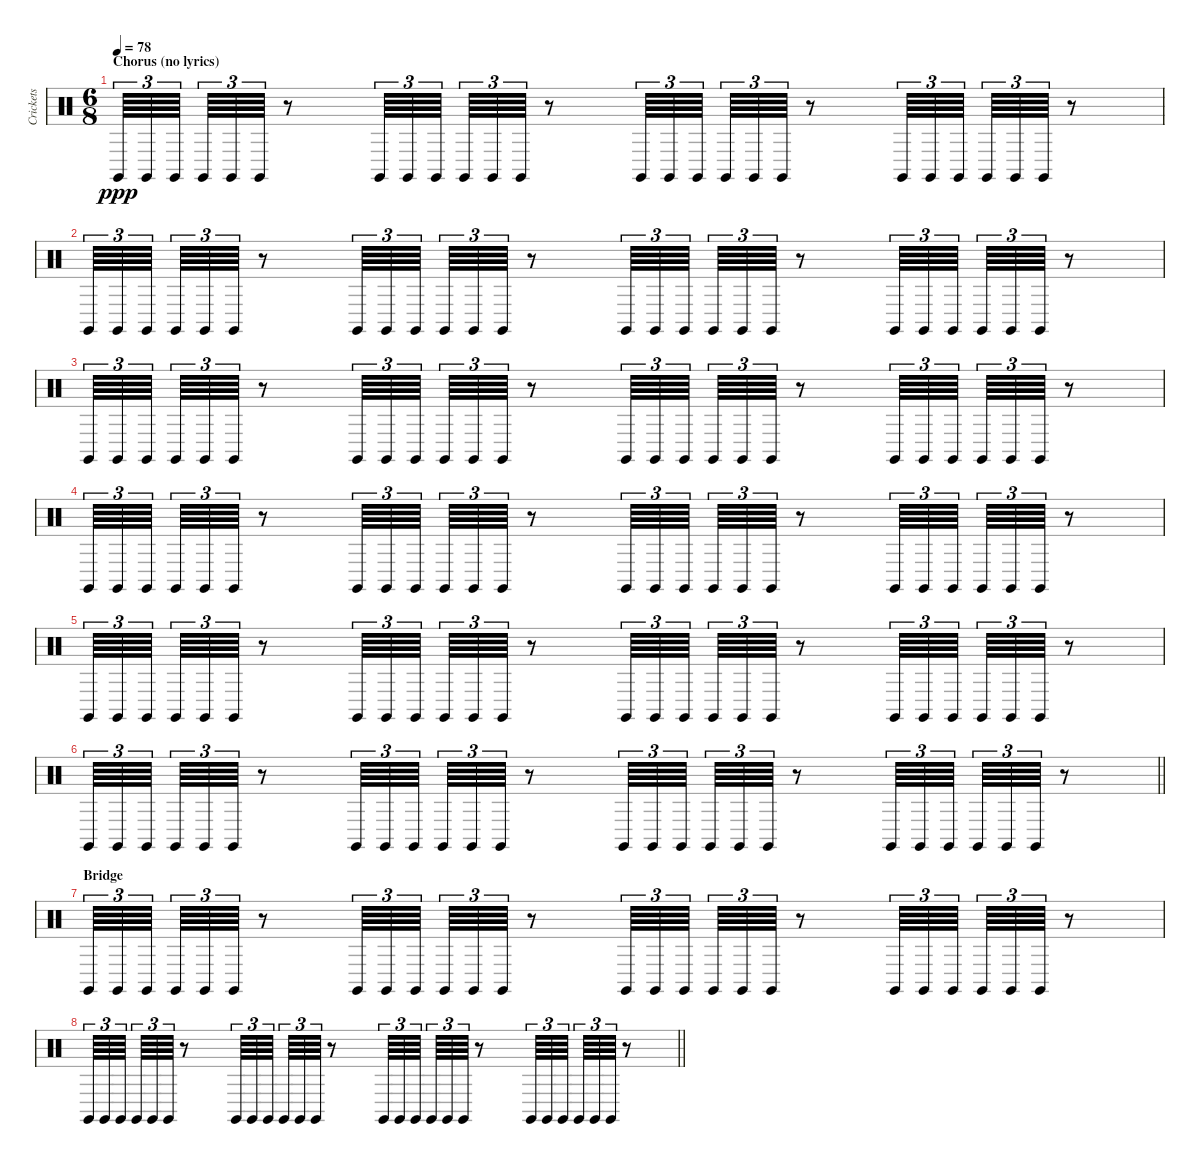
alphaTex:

\track ("Crickets" "Crickets") {instrument percussion}
\staff {score}
\articulation defaults
\ts (6 8)
\section ("" "Chorus (no lyrics)")
\tempo 78
\clef neutral
\ks c "Claves (hit)".64{tu (3 2) dy ppp} "Claves (hit)".64{tu (3 2)} "Claves (hit)".64{tu (3 2) beam splitsecondary} "Claves (hit)".64{tu (3 2)} "Claves (hit)".64{tu (3 2)} "Claves (hit)".64{tu (3 2)}
r.8 "Claves (hit)".64{tu (3 2)} "Claves (hit)".64{tu (3 2)} "Claves (hit)".64{tu (3 2) beam splitsecondary} "Claves (hit)".64{tu (3 2)} "Claves (hit)".64{tu (3 2)} "Claves (hit)".64{tu (3 2)} r.8 "Claves (hit)".64{tu (3 2)} "Claves (hit)".64{tu (3 2)} "Claves (hit)".64{tu (3 2) beam splitsecondary} "Claves (hit)".64{tu (3 2)} "Claves (hit)".64{tu (3 2)} "Claves (hit)".64{tu (3 2)} r.8 "Claves (hit)".64{tu (3 2)} "Claves (hit)".64{tu (3 2)} "Claves (hit)".64{tu (3 2) beam splitsecondary} "Claves (hit)".64{tu (3 2)} "Claves (hit)".64{tu (3 2)} "Claves (hit)".64{tu (3 2)} r.8 |
"Claves (hit)".64{tu (3 2)} "Claves (hit)".64{tu (3 2)} "Claves (hit)".64{tu (3 2) beam splitsecondary} "Claves (hit)".64{tu (3 2)} "Claves (hit)".64{tu (3 2)} "Claves (hit)".64{tu (3 2)} r.8 "Claves (hit)".64{tu (3 2)} "Claves (hit)".64{tu (3 2)} "Claves (hit)".64{tu (3 2) beam splitsecondary} "Claves (hit)".64{tu (3 2)} "Claves (hit)".64{tu (3 2)} "Claves (hit)".64{tu (3 2)} r.8 "Claves (hit)".64{tu (3 2)} "Claves (hit)".64{tu (3 2)} "Claves (hit)".64{tu (3 2) beam splitsecondary} "Claves (hit)".64{tu (3 2)} "Claves (hit)".64{tu (3 2)} "Claves (hit)".64{tu (3 2)} r.8 "Claves (hit)".64{tu (3 2)} "Claves (hit)".64{tu (3 2)} "Claves (hit)".64{tu (3 2) beam splitsecondary} "Claves (hit)".64{tu (3 2)} "Claves (hit)".64{tu (3 2)} "Claves (hit)".64{tu (3 2)} r.8 |
"Claves (hit)".64{tu (3 2)} "Claves (hit)".64{tu (3 2)} "Claves (hit)".64{tu (3 2) beam splitsecondary} "Claves (hit)".64{tu (3 2)} "Claves (hit)".64{tu (3 2)} "Claves (hit)".64{tu (3 2)} r.8 "Claves (hit)".64{tu (3 2)} "Claves (hit)".64{tu (3 2)} "Claves (hit)".64{tu (3 2) beam splitsecondary} "Claves (hit)".64{tu (3 2)} "Claves (hit)".64{tu (3 2)} "Claves (hit)".64{tu (3 2)} r.8 "Claves (hit)".64{tu (3 2)} "Claves (hit)".64{tu (3 2)} "Claves (hit)".64{tu (3 2) beam splitsecondary} "Claves (hit)".64{tu (3 2)} "Claves (hit)".64{tu (3 2)} "Claves (hit)".64{tu (3 2)} r.8 "Claves (hit)".64{tu (3 2)} "Claves (hit)".64{tu (3 2)} "Claves (hit)".64{tu (3 2) beam splitsecondary} "Claves (hit)".64{tu (3 2)} "Claves (hit)".64{tu (3 2)} "Claves (hit)".64{tu (3 2)} r.8 |
"Claves (hit)".64{tu (3 2)} "Claves (hit)".64{tu (3 2)} "Claves (hit)".64{tu (3 2) beam splitsecondary} "Claves (hit)".64{tu (3 2)} "Claves (hit)".64{tu (3 2)} "Claves (hit)".64{tu (3 2)} r.8 "Claves (hit)".64{tu (3 2)} "Claves (hit)".64{tu (3 2)} "Claves (hit)".64{tu (3 2) beam splitsecondary} "Claves (hit)".64{tu (3 2)} "Claves (hit)".64{tu (3 2)} "Claves (hit)".64{tu (3 2)} r.8 "Claves (hit)".64{tu (3 2)} "Claves (hit)".64{tu (3 2)} "Claves (hit)".64{tu (3 2) beam splitsecondary} "Claves (hit)".64{tu (3 2)} "Claves (hit)".64{tu (3 2)} "Claves (hit)".64{tu (3 2)} r.8 "Claves (hit)".64{tu (3 2)} "Claves (hit)".64{tu (3 2)} "Claves (hit)".64{tu (3 2) beam splitsecondary} "Claves (hit)".64{tu (3 2)} "Claves (hit)".64{tu (3 2)} "Claves (hit)".64{tu (3 2)} r.8 |
"Claves (hit)".64{tu (3 2)} "Claves (hit)".64{tu (3 2)} "Claves (hit)".64{tu (3 2) beam splitsecondary} "Claves (hit)".64{tu (3 2)} "Claves (hit)".64{tu (3 2)} "Claves (hit)".64{tu (3 2)} r.8 "Claves (hit)".64{tu (3 2)} "Claves (hit)".64{tu (3 2)} "Claves (hit)".64{tu (3 2) beam splitsecondary} "Claves (hit)".64{tu (3 2)} "Claves (hit)".64{tu (3 2)} "Claves (hit)".64{tu (3 2)} r.8 "Claves (hit)".64{tu (3 2)} "Claves (hit)".64{tu (3 2)} "Claves (hit)".64{tu (3 2) beam splitsecondary} "Claves (hit)".64{tu (3 2)} "Claves (hit)".64{tu (3 2)} "Claves (hit)".64{tu (3 2)} r.8 "Claves (hit)".64{tu (3 2)} "Claves (hit)".64{tu (3 2)} "Claves (hit)".64{tu (3 2) beam splitsecondary} "Claves (hit)".64{tu (3 2)} "Claves (hit)".64{tu (3 2)} "Claves (hit)".64{tu (3 2)} r.8 |
\barLineRight lightlight "Claves (hit)".64{tu (3 2)} "Claves (hit)".64{tu (3 2)} "Claves (hit)".64{tu (3 2) beam splitsecondary} "Claves (hit)".64{tu (3 2)} "Claves (hit)".64{tu (3 2)} "Claves (hit)".64{tu (3 2)}
r.8 "Claves (hit)".64{tu (3 2)} "Claves (hit)".64{tu (3 2)} "Claves (hit)".64{tu (3 2) beam splitsecondary} "Claves (hit)".64{tu (3 2)} "Claves (hit)".64{tu (3 2)} "Claves (hit)".64{tu (3 2)} r.8 "Claves (hit)".64{tu (3 2)} "Claves (hit)".64{tu (3 2)} "Claves (hit)".64{tu (3 2) beam splitsecondary} "Claves (hit)".64{tu (3 2)} "Claves (hit)".64{tu (3 2)} "Claves (hit)".64{tu (3 2)} r.8 "Claves (hit)".64{tu (3 2)} "Claves (hit)".64{tu (3 2)} "Claves (hit)".64{tu (3 2) beam splitsecondary} "Claves (hit)".64{tu (3 2)} "Claves (hit)".64{tu (3 2)} "Claves (hit)".64{tu (3 2)} r.8 |
\section ("" "Bridge")
"Claves (hit)".64{tu (3 2)} "Claves (hit)".64{tu (3 2)} "Claves (hit)".64{tu (3 2) beam splitsecondary} "Claves (hit)".64{tu (3 2)} "Claves (hit)".64{tu (3 2)} "Claves (hit)".64{tu (3 2)} r.8 "Claves (hit)".64{tu (3 2)} "Claves (hit)".64{tu (3 2)} "Claves (hit)".64{tu (3 2) beam splitsecondary} "Claves (hit)".64{tu (3 2)} "Claves (hit)".64{tu (3 2)} "Claves (hit)".64{tu (3 2)} r.8 "Claves (hit)".64{tu (3 2)} "Claves (hit)".64{tu (3 2)} "Claves (hit)".64{tu (3 2) beam splitsecondary} "Claves (hit)".64{tu (3 2)} "Claves (hit)".64{tu (3 2)} "Claves (hit)".64{tu (3 2)} r.8 "Claves (hit)".64{tu (3 2)} "Claves (hit)".64{tu (3 2)} "Claves (hit)".64{tu (3 2) beam splitsecondary} "Claves (hit)".64{tu (3 2)} "Claves (hit)".64{tu (3 2)} "Claves (hit)".64{tu (3 2)} r.8 |
\barLineRight lightlight "Claves (hit)".64{tu (3 2)} "Claves (hit)".64{tu (3 2)} "Claves (hit)".64{tu (3 2) beam splitsecondary} "Claves (hit)".64{tu (3 2)} "Claves (hit)".64{tu (3 2)} "Claves (hit)".64{tu (3 2)}
r.8 "Claves (hit)".64{tu (3 2)} "Claves (hit)".64{tu (3 2)} "Claves (hit)".64{tu (3 2) beam splitsecondary} "Claves (hit)".64{tu (3 2)} "Claves (hit)".64{tu (3 2)} "Claves (hit)".64{tu (3 2)} r.8 "Claves (hit)".64{tu (3 2)} "Claves (hit)".64{tu (3 2)} "Claves (hit)".64{tu (3 2) beam splitsecondary} "Claves (hit)".64{tu (3 2)} "Claves (hit)".64{tu (3 2)} "Claves (hit)".64{tu (3 2)} r.8 "Claves (hit)".64{tu (3 2)} "Claves (hit)".64{tu (3 2)} "Claves (hit)".64{tu (3 2) beam splitsecondary} "Claves (hit)".64{tu (3 2)} "Claves (hit)".64{tu (3 2)} "Claves (hit)".64{tu (3 2)} r.8
